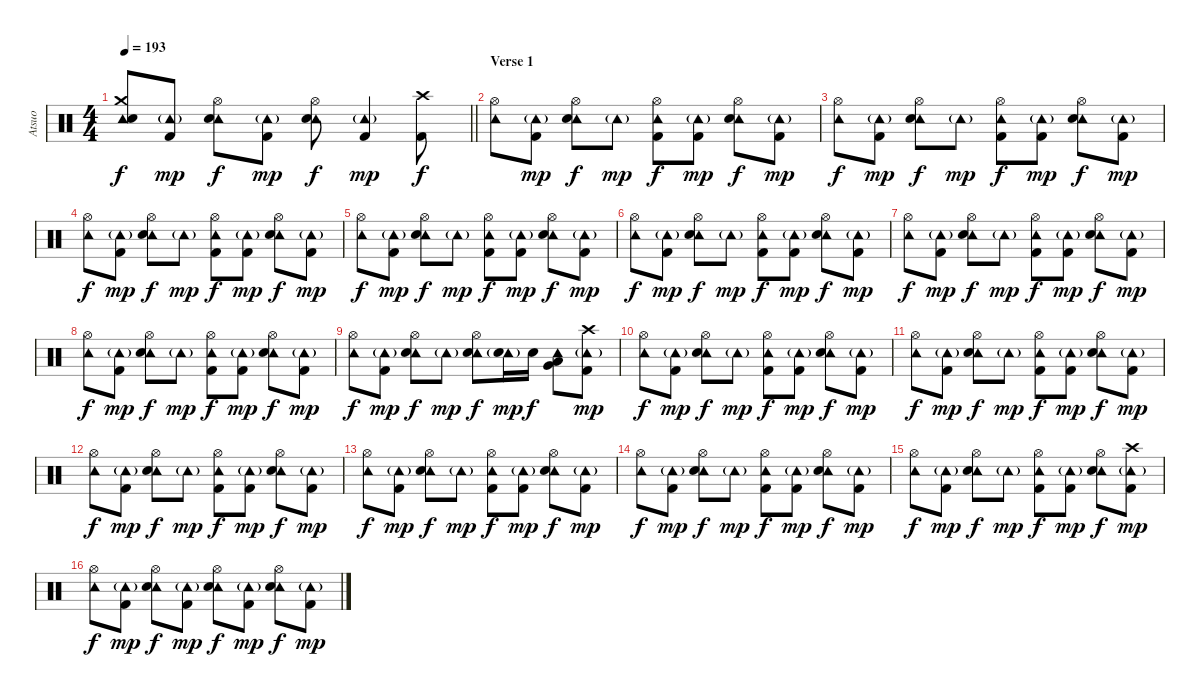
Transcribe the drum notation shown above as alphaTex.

\track ("Atsuo" "Atsuo") {instrument percussion}
\staff {score}
\articulation defaults
\ts (4 4)
\tempo 193
\clef neutral
\barLineRight lightlight
\ks c
("Tambourine (hit)" "Crash medium (hit)" "Electric Snare (hit)").8{dy f} ("Tambourine (hit)"{g} "Kick (hit) 2").8{dy mp} ("Hi-Hat (open)" "Tambourine (hit)" "Electric Snare (hit)").8{dy f} ("Tambourine (hit)"{g} "Kick (hit) 2").8{dy mp} ("Hi-Hat (open)" "Tambourine (hit)" "Electric Snare (hit)").8{dy f} ("Tambourine (hit)"{g} "Kick (hit) 2").4{dy mp} ("Crash high (hit)" "Kick (hit) 2").8{dy f} |
\section ("" "Verse 1")
("Hi-Hat (open)" "Tambourine (hit)").8 ("Tambourine (hit)"{g} "Kick (hit) 2").8{dy mp} ("Hi-Hat (open)" "Tambourine (hit)" "Electric Snare (hit)").8{dy f} "Tambourine (hit)"{g}.8{dy mp} ("Hi-Hat (open)" "Tambourine (hit)" "Kick (hit) 2").8{dy f} ("Tambourine (hit)"{g} "Kick (hit) 2").8{dy mp} ("Hi-Hat (open)" "Tambourine (hit)" "Electric Snare (hit)").8{dy f} ("Tambourine (hit)"{g} "Kick (hit) 2").8{dy mp} |
("Hi-Hat (open)" "Tambourine (hit)").8{dy f} ("Tambourine (hit)"{g} "Kick (hit) 2").8{dy mp} ("Hi-Hat (open)" "Tambourine (hit)" "Electric Snare (hit)").8{dy f} "Tambourine (hit)"{g}.8{dy mp} ("Hi-Hat (open)" "Tambourine (hit)" "Kick (hit) 2").8{dy f} ("Tambourine (hit)"{g} "Kick (hit) 2").8{dy mp} ("Hi-Hat (open)" "Tambourine (hit)" "Electric Snare (hit)").8{dy f} ("Tambourine (hit)"{g} "Kick (hit) 2").8{dy mp} |
("Hi-Hat (open)" "Tambourine (hit)").8{dy f} ("Tambourine (hit)"{g} "Kick (hit) 2").8{dy mp} ("Hi-Hat (open)" "Tambourine (hit)" "Electric Snare (hit)").8{dy f} "Tambourine (hit)"{g}.8{dy mp} ("Hi-Hat (open)" "Tambourine (hit)" "Kick (hit) 2").8{dy f} ("Tambourine (hit)"{g} "Kick (hit) 2").8{dy mp} ("Hi-Hat (open)" "Tambourine (hit)" "Electric Snare (hit)").8{dy f} ("Tambourine (hit)"{g} "Kick (hit) 2").8{dy mp} |
("Hi-Hat (open)" "Tambourine (hit)").8{dy f} ("Tambourine (hit)"{g} "Kick (hit) 2").8{dy mp} ("Hi-Hat (open)" "Tambourine (hit)" "Electric Snare (hit)").8{dy f} "Tambourine (hit)"{g}.8{dy mp} ("Hi-Hat (open)" "Tambourine (hit)" "Kick (hit) 2").8{dy f} ("Tambourine (hit)"{g} "Kick (hit) 2").8{dy mp} ("Hi-Hat (open)" "Tambourine (hit)" "Electric Snare (hit)").8{dy f} ("Tambourine (hit)"{g} "Kick (hit) 2").8{dy mp} |
("Hi-Hat (open)" "Tambourine (hit)").8{dy f} ("Tambourine (hit)"{g} "Kick (hit) 2").8{dy mp} ("Hi-Hat (open)" "Tambourine (hit)" "Electric Snare (hit)").8{dy f} "Tambourine (hit)"{g}.8{dy mp} ("Hi-Hat (open)" "Tambourine (hit)" "Kick (hit) 2").8{dy f} ("Tambourine (hit)"{g} "Kick (hit) 2").8{dy mp} ("Hi-Hat (open)" "Tambourine (hit)" "Electric Snare (hit)").8{dy f} ("Tambourine (hit)"{g} "Kick (hit) 2").8{dy mp} |
("Hi-Hat (open)" "Tambourine (hit)").8{dy f} ("Tambourine (hit)"{g} "Kick (hit) 2").8{dy mp} ("Hi-Hat (open)" "Tambourine (hit)" "Electric Snare (hit)").8{dy f} "Tambourine (hit)"{g}.8{dy mp} ("Hi-Hat (open)" "Tambourine (hit)" "Kick (hit) 2").8{dy f} ("Tambourine (hit)"{g} "Kick (hit) 2").8{dy mp} ("Hi-Hat (open)" "Tambourine (hit)" "Electric Snare (hit)").8{dy f} ("Tambourine (hit)"{g} "Kick (hit) 2").8{dy mp} |
("Hi-Hat (open)" "Tambourine (hit)").8{dy f} ("Tambourine (hit)"{g} "Kick (hit) 2").8{dy mp} ("Hi-Hat (open)" "Tambourine (hit)" "Electric Snare (hit)").8{dy f} "Tambourine (hit)"{g}.8{dy mp} ("Hi-Hat (open)" "Tambourine (hit)" "Kick (hit) 2").8{dy f} ("Tambourine (hit)"{g} "Kick (hit) 2").8{dy mp} ("Hi-Hat (open)" "Tambourine (hit)" "Electric Snare (hit)").8{dy f} ("Tambourine (hit)"{g} "Kick (hit) 2").8{dy mp} |
("Hi-Hat (open)" "Tambourine (hit)").8{dy f} ("Tambourine (hit)"{g} "Kick (hit) 2").8{dy mp} ("Hi-Hat (open)" "Tambourine (hit)" "Electric Snare (hit)").8{dy f} "Tambourine (hit)"{g}.8{dy mp} ("Hi-Hat (open)" "Tambourine (hit)" "Electric Snare (hit)").8{dy f} ("Tambourine (hit)"{g} "Electric Snare (hit)").16{dy mp} "Electric Snare (hit)".16{dy f} ("Tambourine (hit)" "Very Low Tom (hit)" "Low Floor Tom (hit)").8 ("Tambourine (hit)"{g} "Crash high (hit)" "Kick (hit) 2").8{dy mp} |
("Hi-Hat (open)" "Tambourine (hit)").8{dy f} ("Tambourine (hit)"{g} "Kick (hit) 2").8{dy mp} ("Hi-Hat (open)" "Tambourine (hit)" "Electric Snare (hit)").8{dy f} "Tambourine (hit)"{g}.8{dy mp} ("Hi-Hat (open)" "Tambourine (hit)" "Kick (hit) 2").8{dy f} ("Tambourine (hit)"{g} "Kick (hit) 2").8{dy mp} ("Hi-Hat (open)" "Tambourine (hit)" "Electric Snare (hit)").8{dy f} ("Tambourine (hit)"{g} "Kick (hit) 2").8{dy mp} |
("Hi-Hat (open)" "Tambourine (hit)").8{dy f} ("Tambourine (hit)"{g} "Kick (hit) 2").8{dy mp} ("Hi-Hat (open)" "Tambourine (hit)" "Electric Snare (hit)").8{dy f} "Tambourine (hit)"{g}.8{dy mp} ("Hi-Hat (open)" "Tambourine (hit)" "Kick (hit) 2").8{dy f} ("Tambourine (hit)"{g} "Kick (hit) 2").8{dy mp} ("Hi-Hat (open)" "Tambourine (hit)" "Electric Snare (hit)").8{dy f} ("Tambourine (hit)"{g} "Kick (hit) 2").8{dy mp} |
("Hi-Hat (open)" "Tambourine (hit)").8{dy f} ("Tambourine (hit)"{g} "Kick (hit) 2").8{dy mp} ("Hi-Hat (open)" "Tambourine (hit)" "Electric Snare (hit)").8{dy f} "Tambourine (hit)"{g}.8{dy mp} ("Hi-Hat (open)" "Tambourine (hit)" "Kick (hit) 2").8{dy f} ("Tambourine (hit)"{g} "Kick (hit) 2").8{dy mp} ("Hi-Hat (open)" "Tambourine (hit)" "Electric Snare (hit)").8{dy f} ("Tambourine (hit)"{g} "Kick (hit) 2").8{dy mp} |
("Hi-Hat (open)" "Tambourine (hit)").8{dy f} ("Tambourine (hit)"{g} "Kick (hit) 2").8{dy mp} ("Hi-Hat (open)" "Tambourine (hit)" "Electric Snare (hit)").8{dy f} "Tambourine (hit)"{g}.8{dy mp} ("Hi-Hat (open)" "Tambourine (hit)" "Kick (hit) 2").8{dy f} ("Tambourine (hit)"{g} "Kick (hit) 2").8{dy mp} ("Hi-Hat (open)" "Tambourine (hit)" "Electric Snare (hit)").8{dy f} ("Tambourine (hit)"{g} "Kick (hit) 2").8{dy mp} |
("Hi-Hat (open)" "Tambourine (hit)").8{dy f} ("Tambourine (hit)"{g} "Kick (hit) 2").8{dy mp} ("Hi-Hat (open)" "Tambourine (hit)" "Electric Snare (hit)").8{dy f} "Tambourine (hit)"{g}.8{dy mp} ("Hi-Hat (open)" "Tambourine (hit)" "Kick (hit) 2").8{dy f} ("Tambourine (hit)"{g} "Kick (hit) 2").8{dy mp} ("Hi-Hat (open)" "Tambourine (hit)" "Electric Snare (hit)").8{dy f} ("Tambourine (hit)"{g} "Kick (hit) 2").8{dy mp} |
("Hi-Hat (open)" "Tambourine (hit)").8{dy f} ("Tambourine (hit)"{g} "Kick (hit) 2").8{dy mp} ("Hi-Hat (open)" "Tambourine (hit)" "Electric Snare (hit)").8{dy f} "Tambourine (hit)"{g}.8{dy mp} ("Hi-Hat (open)" "Tambourine (hit)" "Kick (hit) 2").8{dy f} ("Tambourine (hit)"{g} "Kick (hit) 2").8{dy mp} ("Hi-Hat (open)" "Tambourine (hit)" "Electric Snare (hit)").8{dy f} ("Tambourine (hit)"{g} "Crash high (hit)" "Kick (hit) 2").8{dy mp} |
("Hi-Hat (open)" "Tambourine (hit)").8{dy f} ("Tambourine (hit)"{g} "Kick (hit) 2").8{dy mp} ("Hi-Hat (open)" "Tambourine (hit)" "Electric Snare (hit)").8{dy f} ("Tambourine (hit)"{g} "Kick (hit) 2").8{dy mp} ("Hi-Hat (open)" "Tambourine (hit)" "Electric Snare (hit)").8{dy f} ("Tambourine (hit)"{g} "Kick (hit) 2").8{dy mp} ("Hi-Hat (open)" "Tambourine (hit)" "Electric Snare (hit)").8{dy f} ("Tambourine (hit)"{g} "Kick (hit) 2").8{dy mp}
